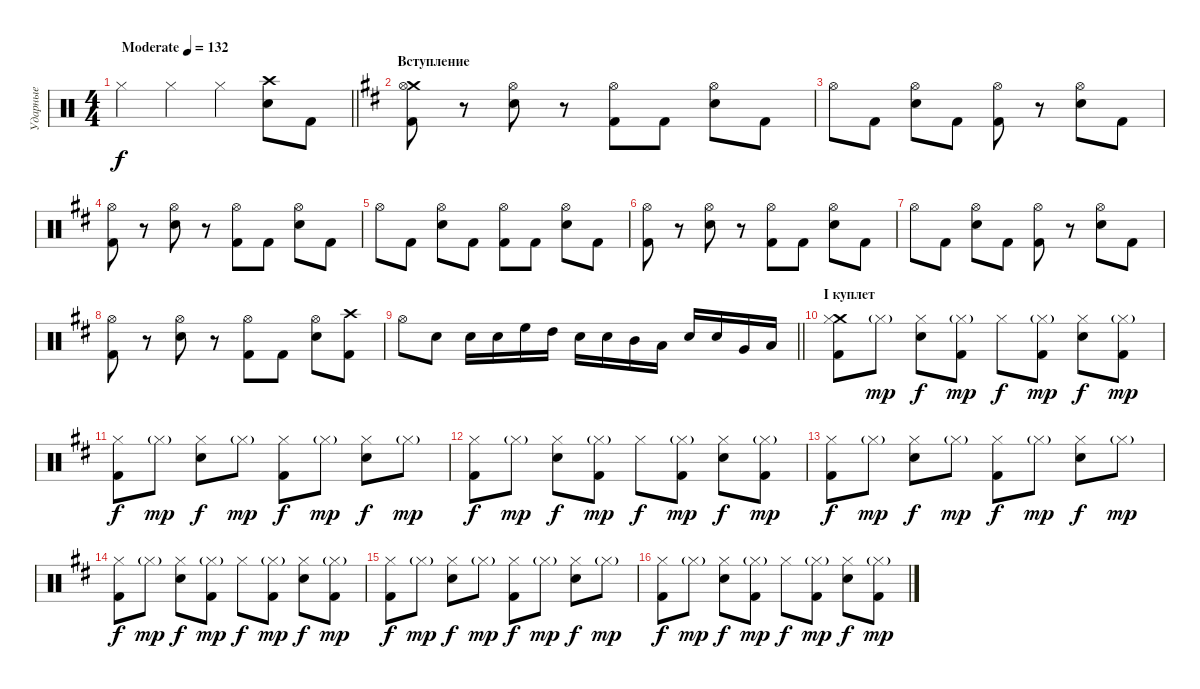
\track ("Ударные" "Ударные") {instrument percussion}
\staff {score}
\articulation defaults
\ts (4 4)
\tempo (132 "Moderate")
\clef neutral
\barLineRight lightlight
\ks c "Hi-Hat (closed)".4{dy f} "Hi-Hat (closed)".4 "Hi-Hat (closed)".4
("Crash high (hit)" "Electric Snare (hit)").8 "Kick (hit) 2".8 |
\section ("" "Вступление")
\ks bminor
("Crash medium (hit)" "Kick (hit) 2" "Hi-Hat (open)").8 r.8 ("Electric Snare (hit)" "Hi-Hat (open)").8 r.8 ("Kick (hit) 2" "Hi-Hat (open)").8 "Kick (hit) 2".8 ("Electric Snare (hit)" "Hi-Hat (open)").8 "Kick (hit) 2".8 |
"Hi-Hat (open)".8 "Kick (hit) 2".8 ("Electric Snare (hit)" "Hi-Hat (open)").8 "Kick (hit) 2".8 ("Kick (hit) 2" "Hi-Hat (open)").8 r.8 ("Electric Snare (hit)" "Hi-Hat (open)").8 "Kick (hit) 2".8 |
("Kick (hit) 2" "Hi-Hat (open)").8 r.8 ("Electric Snare (hit)" "Hi-Hat (open)").8 r.8 ("Kick (hit) 2" "Hi-Hat (open)").8 "Kick (hit) 2".8 ("Electric Snare (hit)" "Hi-Hat (open)").8 "Kick (hit) 2".8 |
"Hi-Hat (open)".8 "Kick (hit) 2".8 ("Electric Snare (hit)" "Hi-Hat (open)").8 "Kick (hit) 2".8 ("Kick (hit) 2" "Hi-Hat (open)").8 "Kick (hit) 2".8 ("Electric Snare (hit)" "Hi-Hat (open)").8 "Kick (hit) 2".8 |
("Kick (hit) 2" "Hi-Hat (open)").8 r.8 ("Electric Snare (hit)" "Hi-Hat (open)").8 r.8 ("Kick (hit) 2" "Hi-Hat (open)").8 "Kick (hit) 2".8 ("Electric Snare (hit)" "Hi-Hat (open)").8 "Kick (hit) 2".8 |
"Hi-Hat (open)".8 "Kick (hit) 2".8 ("Electric Snare (hit)" "Hi-Hat (open)").8 "Kick (hit) 2".8 ("Kick (hit) 2" "Hi-Hat (open)").8 r.8 ("Electric Snare (hit)" "Hi-Hat (open)").8 "Kick (hit) 2".8 |
("Kick (hit) 2" "Hi-Hat (open)").8 r.8 ("Electric Snare (hit)" "Hi-Hat (open)").8 r.8 ("Kick (hit) 2" "Hi-Hat (open)").8 "Kick (hit) 2".8 ("Electric Snare (hit)" "Hi-Hat (open)").8 ("Crash high (hit)" "Kick (hit) 2").8 |
\barLineRight lightlight "Hi-Hat (open)".8 "Electric Snare (hit)".8 "Electric Snare (hit)".16 "Electric Snare (hit)".16 "High Floor Tom (hit)".16 "High Tom (hit)".16 "Electric Snare (hit)".16 "Electric Snare (hit)".16 "Mid Tom (hit)".16 "Low Tom (hit)".16 "Electric Snare (hit)".16 "Electric Snare (hit)".16 "Very Low Tom (hit)".16 "Low Floor Tom (hit)".16
|
\section ("" "I куплет")
("Crash medium (hit)" "Kick (hit) 2" "Hi-Hat (closed)").8 "Hi-Hat (closed)"{g}.8{dy mp} ("Electric Snare (hit)" "Hi-Hat (closed)").8{dy f} ("Kick (hit) 2" "Hi-Hat (closed)"{g}).8{dy mp} "Hi-Hat (closed)".8{dy f} ("Kick (hit) 2" "Hi-Hat (closed)"{g}).8{dy mp} ("Electric Snare (hit)" "Hi-Hat (closed)").8{dy f} ("Kick (hit) 2" "Hi-Hat (closed)"{g}).8{dy mp} |
("Kick (hit) 2" "Hi-Hat (closed)").8{dy f} "Hi-Hat (closed)"{g}.8{dy mp} ("Electric Snare (hit)" "Hi-Hat (closed)").8{dy f} "Hi-Hat (closed)"{g}.8{dy mp} ("Kick (hit) 2" "Hi-Hat (closed)").8{dy f} "Hi-Hat (closed)"{g}.8{dy mp} ("Electric Snare (hit)" "Hi-Hat (closed)").8{dy f} "Hi-Hat (closed)"{g}.8{dy mp} |
("Kick (hit) 2" "Hi-Hat (closed)").8{dy f} "Hi-Hat (closed)"{g}.8{dy mp} ("Electric Snare (hit)" "Hi-Hat (closed)").8{dy f} ("Kick (hit) 2" "Hi-Hat (closed)"{g}).8{dy mp} "Hi-Hat (closed)".8{dy f} ("Kick (hit) 2" "Hi-Hat (closed)"{g}).8{dy mp} ("Electric Snare (hit)" "Hi-Hat (closed)").8{dy f} ("Kick (hit) 2" "Hi-Hat (closed)"{g}).8{dy mp} |
("Kick (hit) 2" "Hi-Hat (closed)").8{dy f} "Hi-Hat (closed)"{g}.8{dy mp} ("Electric Snare (hit)" "Hi-Hat (closed)").8{dy f} "Hi-Hat (closed)"{g}.8{dy mp} ("Kick (hit) 2" "Hi-Hat (closed)").8{dy f} "Hi-Hat (closed)"{g}.8{dy mp} ("Electric Snare (hit)" "Hi-Hat (closed)").8{dy f} "Hi-Hat (closed)"{g}.8{dy mp} |
("Kick (hit) 2" "Hi-Hat (closed)").8{dy f} "Hi-Hat (closed)"{g}.8{dy mp} ("Electric Snare (hit)" "Hi-Hat (closed)").8{dy f} ("Kick (hit) 2" "Hi-Hat (closed)"{g}).8{dy mp} "Hi-Hat (closed)".8{dy f} ("Kick (hit) 2" "Hi-Hat (closed)"{g}).8{dy mp} ("Electric Snare (hit)" "Hi-Hat (closed)").8{dy f} ("Kick (hit) 2" "Hi-Hat (closed)"{g}).8{dy mp} |
("Kick (hit) 2" "Hi-Hat (closed)").8{dy f} "Hi-Hat (closed)"{g}.8{dy mp} ("Electric Snare (hit)" "Hi-Hat (closed)").8{dy f} "Hi-Hat (closed)"{g}.8{dy mp} ("Kick (hit) 2" "Hi-Hat (closed)").8{dy f} "Hi-Hat (closed)"{g}.8{dy mp} ("Electric Snare (hit)" "Hi-Hat (closed)").8{dy f} "Hi-Hat (closed)"{g}.8{dy mp} |
("Kick (hit) 2" "Hi-Hat (closed)").8{dy f} "Hi-Hat (closed)"{g}.8{dy mp} ("Electric Snare (hit)" "Hi-Hat (closed)").8{dy f} ("Kick (hit) 2" "Hi-Hat (closed)"{g}).8{dy mp} "Hi-Hat (closed)".8{dy f} ("Kick (hit) 2" "Hi-Hat (closed)"{g}).8{dy mp} ("Electric Snare (hit)" "Hi-Hat (closed)").8{dy f} ("Kick (hit) 2" "Hi-Hat (closed)"{g}).8{dy mp}
